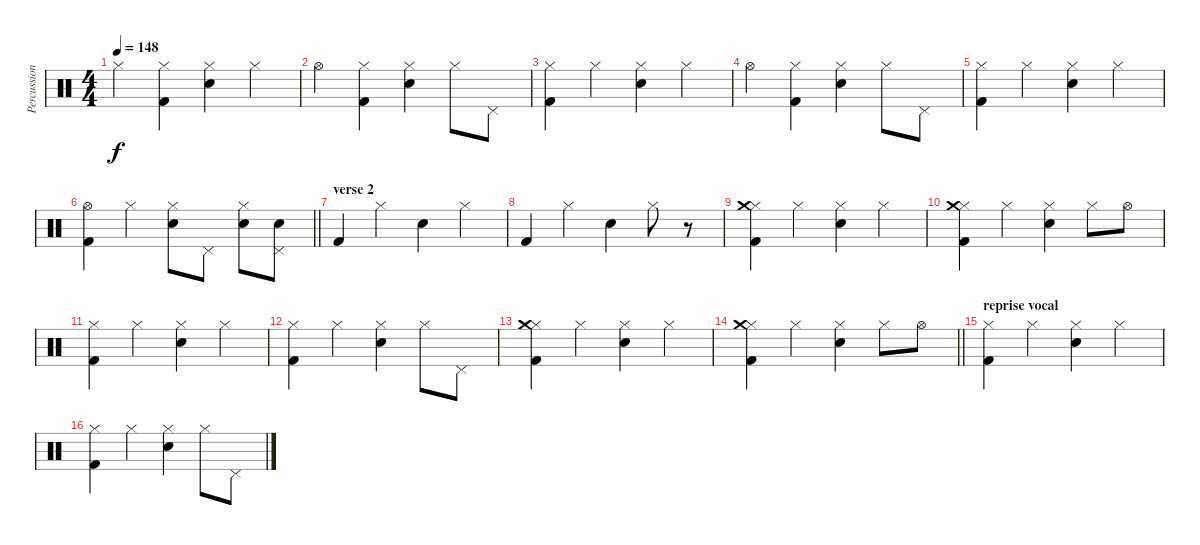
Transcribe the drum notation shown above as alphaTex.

\track ("Percussions" "Percussion") {instrument percussion}
\staff {score}
\articulation defaults
\ts (4 4)
\tempo 148
\clef neutral
\ks c "Hi-Hat (closed)".4{dy f}
("Hi-Hat (closed)" "Kick (hit) 2").4 ("Hi-Hat (closed)" "Snare (hit) 2").4 "Hi-Hat (closed)".4 |
"Hi-Hat (open)".4 ("Hi-Hat (closed)" "Kick (hit) 2").4 ("Hi-Hat (closed)" "Snare (hit) 2").4 "Hi-Hat (closed)".8 "Pedal Hi-Hat (hit)".8 |
("Hi-Hat (closed)" "Kick (hit) 2").4 "Hi-Hat (closed)".4 ("Hi-Hat (closed)" "Snare (hit) 2").4 "Hi-Hat (closed)".4 |
"Hi-Hat (open)".4 ("Hi-Hat (closed)" "Kick (hit) 2").4 ("Hi-Hat (closed)" "Snare (hit) 2").4 "Hi-Hat (closed)".8 "Pedal Hi-Hat (hit)".8 |
("Hi-Hat (closed)" "Kick (hit) 2").4 "Hi-Hat (closed)".4 ("Hi-Hat (closed)" "Snare (hit) 2").4 "Hi-Hat (closed)".4 |
\barLineRight lightlight
("Hi-Hat (open)" "Kick (hit) 2").4 "Hi-Hat (closed)".4 ("Hi-Hat (closed)" "Snare (hit) 2").8 "Pedal Hi-Hat (hit)".8 ("Hi-Hat (closed)" "Snare (hit) 2").8 ("Pedal Hi-Hat (hit)" "Snare (hit) 2").8 |
\section ("" "verse 2")
"Kick (hit) 2".4 "Hi-Hat (closed)".4 "Snare (hit) 2".4 "Hi-Hat (closed)".4 |
"Kick (hit) 2".4 "Hi-Hat (closed)".4 "Snare (hit) 2".4 "Hi-Hat (closed)".8 r.8 |
("Hi-Hat (closed)" "Kick (hit) 2" "Crash medium (hit)").4 "Hi-Hat (closed)".4 ("Hi-Hat (closed)" "Snare (hit) 2").4 "Hi-Hat (closed)".4 |
("Hi-Hat (closed)" "Kick (hit) 2" "Crash medium (hit)").4 "Hi-Hat (closed)".4 ("Hi-Hat (closed)" "Snare (hit) 2").4 "Hi-Hat (closed)".8 "Hi-Hat (open)".8 |
("Hi-Hat (closed)" "Kick (hit) 2").4 "Hi-Hat (closed)".4 ("Hi-Hat (closed)" "Snare (hit) 2").4 "Hi-Hat (closed)".4 |
("Hi-Hat (closed)" "Kick (hit) 2").4 "Hi-Hat (closed)".4 ("Hi-Hat (closed)" "Snare (hit) 2").4 "Hi-Hat (closed)".8 "Pedal Hi-Hat (hit)".8 |
("Hi-Hat (closed)" "Kick (hit) 2" "Crash medium (hit)").4 "Hi-Hat (closed)".4 ("Hi-Hat (closed)" "Snare (hit) 2").4 "Hi-Hat (closed)".4 |
\barLineRight lightlight
("Hi-Hat (closed)" "Kick (hit) 2" "Crash medium (hit)").4 "Hi-Hat (closed)".4 ("Hi-Hat (closed)" "Snare (hit) 2").4 "Hi-Hat (closed)".8 "Hi-Hat (open)".8 |
\section ("" "reprise vocal")
("Hi-Hat (closed)" "Kick (hit) 2").4 "Hi-Hat (closed)".4 ("Hi-Hat (closed)" "Snare (hit) 2").4 "Hi-Hat (closed)".4 |
("Hi-Hat (closed)" "Kick (hit) 2").4 "Hi-Hat (closed)".4 ("Hi-Hat (closed)" "Snare (hit) 2").4 "Hi-Hat (closed)".8 "Pedal Hi-Hat (hit)".8
